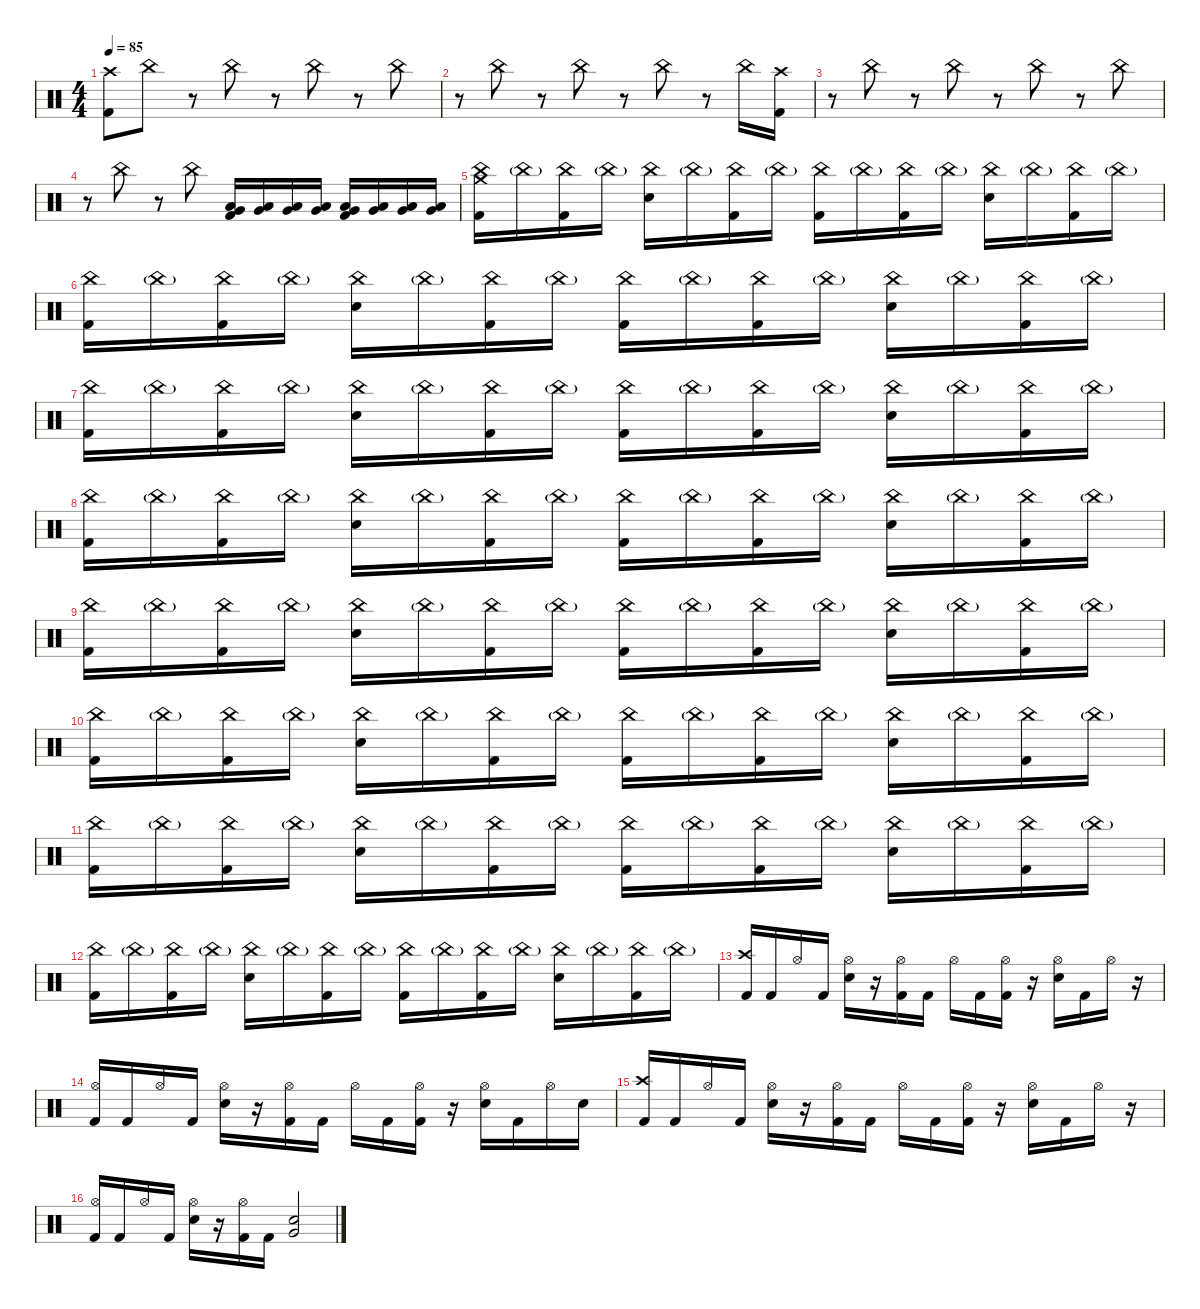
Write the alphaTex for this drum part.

\defaultSystemsLayout 4
\hideDynamics
\bracketExtendMode nobrackets
\singleTrackTrackNamePolicy hidden
\multiTrackTrackNamePolicy hidden
\firstSystemTrackNameMode fullname
\firstSystemTrackNameOrientation horizontal
\otherSystemsTrackNameOrientation horizontal
\track ("Drums" "drm.") {instrument percussion}
\staff {score}
\articulation defaults
\ts (4 4)
\tempo 85
\clef neutral
\ks c
("Crash high (hit)" "Kick (hit) 2").8{dy f beam Down} "China (hit)".8{dy mf beam Down} r.8{beam Down} "China (hit)".8{beam Down} r.8{beam Down} "China (hit)".8{beam Down} r.8{beam Down} "China (hit)".8{beam Down} |
r.8{beam Down} "China (hit)".8{beam Down} r.8{beam Down} "China (hit)".8{beam Down} r.8{beam Down} "China (hit)".8{beam Down} r.8{beam Down} "China (hit)".16{beam Down} ("Crash high (hit)" "Kick (hit) 2").16{dy f beam Down} |
r.8{beam Down} "China (hit)".8{dy mf beam Down} r.8{beam Down} "China (hit)".8{beam Down} r.8{beam Down} "China (hit)".8{beam Down} r.8{beam Down} "China (hit)".8{beam Down} |
r.8{beam Down} "China (hit)".8{beam Down} r.8{beam Down} "China (hit)".8{beam Down} ("Low Tom (hit)" "Very Low Tom (hit)" "Kick (hit) 2").16{beam Up} ("Low Tom (hit)" "Very Low Tom (hit)").16{beam Up} ("Low Tom (hit)" "Very Low Tom (hit)").16{dy f beam Up} ("Low Tom (hit)" "Very Low Tom (hit)").16{beam Up} ("Low Tom (hit)" "Very Low Tom (hit)" "Kick (hit) 2").16{dy ff beam Up} ("Low Tom (hit)" "Very Low Tom (hit)").16{beam Up} ("Low Tom (hit)" "Very Low Tom (hit)").16{dy fff beam Up} ("Low Tom (hit)" "Very Low Tom (hit)").16{beam Up} |
("Crash medium (hit)" "China (hit)" "Kick (hit) 2").16{dy f beam Down} "China (hit)"{g}.16{dy mf beam Down} ("China (hit)" "Kick (hit) 2").16{beam Down} "China (hit)"{g}.16{beam Down} ("China (hit)" "Snare (hit) 2").16{beam Down} "China (hit)"{g}.16{beam Down} ("China (hit)" "Kick (hit) 2").16{beam Down} "China (hit)"{g}.16{beam Down} ("China (hit)" "Kick (hit) 2").16{beam Down} "China (hit)"{g}.16{beam Down} ("China (hit)" "Kick (hit) 2").16{beam Down} "China (hit)"{g}.16{beam Down} ("China (hit)" "Snare (hit) 2").16{beam Down} "China (hit)"{g}.16{beam Down} ("China (hit)" "Kick (hit) 2").16{beam Down} "China (hit)"{g}.16{beam Down} |
("China (hit)" "Kick (hit) 2").16{beam Down} "China (hit)"{g}.16{beam Down} ("China (hit)" "Kick (hit) 2").16{beam Down} "China (hit)"{g}.16{beam Down} ("China (hit)" "Snare (hit) 2").16{beam Down} "China (hit)"{g}.16{beam Down} ("China (hit)" "Kick (hit) 2").16{beam Down} "China (hit)"{g}.16{beam Down} ("China (hit)" "Kick (hit) 2").16{beam Down} "China (hit)"{g}.16{beam Down} ("China (hit)" "Kick (hit) 2").16{beam Down} "China (hit)"{g}.16{beam Down} ("China (hit)" "Snare (hit) 2").16{beam Down} "China (hit)"{g}.16{beam Down} ("China (hit)" "Kick (hit) 2").16{beam Down} "China (hit)"{g}.16{beam Down} |
("China (hit)" "Kick (hit) 2").16{beam Down} "China (hit)"{g}.16{beam Down} ("China (hit)" "Kick (hit) 2").16{beam Down} "China (hit)"{g}.16{beam Down} ("China (hit)" "Snare (hit) 2").16{beam Down} "China (hit)"{g}.16{beam Down} ("China (hit)" "Kick (hit) 2").16{beam Down} "China (hit)"{g}.16{beam Down} ("China (hit)" "Kick (hit) 2").16{beam Down} "China (hit)"{g}.16{beam Down} ("China (hit)" "Kick (hit) 2").16{beam Down} "China (hit)"{g}.16{beam Down} ("China (hit)" "Snare (hit) 2").16{beam Down} "China (hit)"{g}.16{beam Down} ("China (hit)" "Kick (hit) 2").16{beam Down} "China (hit)"{g}.16{beam Down} |
("China (hit)" "Kick (hit) 2").16{beam Down} "China (hit)"{g}.16{beam Down} ("China (hit)" "Kick (hit) 2").16{beam Down} "China (hit)"{g}.16{beam Down} ("China (hit)" "Snare (hit) 2").16{beam Down} "China (hit)"{g}.16{beam Down} ("China (hit)" "Kick (hit) 2").16{beam Down} "China (hit)"{g}.16{beam Down} ("China (hit)" "Kick (hit) 2").16{beam Down} "China (hit)"{g}.16{beam Down} ("China (hit)" "Kick (hit) 2").16{beam Down} "China (hit)"{g}.16{beam Down} ("China (hit)" "Snare (hit) 2").16{beam Down} "China (hit)"{g}.16{beam Down} ("China (hit)" "Kick (hit) 2").16{beam Down} "China (hit)"{g}.16{beam Down} |
("China (hit)" "Kick (hit) 2").16{beam Down} "China (hit)"{g}.16{beam Down} ("China (hit)" "Kick (hit) 2").16{beam Down} "China (hit)"{g}.16{beam Down} ("China (hit)" "Snare (hit) 2").16{beam Down} "China (hit)"{g}.16{beam Down} ("China (hit)" "Kick (hit) 2").16{beam Down} "China (hit)"{g}.16{beam Down} ("China (hit)" "Kick (hit) 2").16{beam Down} "China (hit)"{g}.16{beam Down} ("China (hit)" "Kick (hit) 2").16{beam Down} "China (hit)"{g}.16{beam Down} ("China (hit)" "Snare (hit) 2").16{beam Down} "China (hit)"{g}.16{beam Down} ("China (hit)" "Kick (hit) 2").16{beam Down} "China (hit)"{g}.16{beam Down} |
("China (hit)" "Kick (hit) 2").16{beam Down} "China (hit)"{g}.16{beam Down} ("China (hit)" "Kick (hit) 2").16{beam Down} "China (hit)"{g}.16{beam Down} ("China (hit)" "Snare (hit) 2").16{beam Down} "China (hit)"{g}.16{beam Down} ("China (hit)" "Kick (hit) 2").16{beam Down} "China (hit)"{g}.16{beam Down} ("China (hit)" "Kick (hit) 2").16{beam Down} "China (hit)"{g}.16{beam Down} ("China (hit)" "Kick (hit) 2").16{beam Down} "China (hit)"{g}.16{beam Down} ("China (hit)" "Snare (hit) 2").16{beam Down} "China (hit)"{g}.16{beam Down} ("China (hit)" "Kick (hit) 2").16{beam Down} "China (hit)"{g}.16{beam Down} |
("China (hit)" "Kick (hit) 2").16{beam Down} "China (hit)"{g}.16{beam Down} ("China (hit)" "Kick (hit) 2").16{beam Down} "China (hit)"{g}.16{beam Down} ("China (hit)" "Snare (hit) 2").16{beam Down} "China (hit)"{g}.16{beam Down} ("China (hit)" "Kick (hit) 2").16{beam Down} "China (hit)"{g}.16{beam Down} ("China (hit)" "Kick (hit) 2").16{beam Down} "China (hit)"{g}.16{beam Down} ("China (hit)" "Kick (hit) 2").16{beam Down} "China (hit)"{g}.16{beam Down} ("China (hit)" "Snare (hit) 2").16{beam Down} "China (hit)"{g}.16{beam Down} ("China (hit)" "Kick (hit) 2").16{beam Down} "China (hit)"{g}.16{beam Down} |
("China (hit)" "Kick (hit) 2").16{beam Down} "China (hit)"{g}.16{beam Down} ("China (hit)" "Kick (hit) 2").16{beam Down} "China (hit)"{g}.16{beam Down} ("China (hit)" "Snare (hit) 2").16{beam Down} "China (hit)"{g}.16{beam Down} ("China (hit)" "Kick (hit) 2").16{beam Down} "China (hit)"{g}.16{beam Down} ("China (hit)" "Kick (hit) 2").16{beam Down} "China (hit)"{g}.16{beam Down} ("China (hit)" "Kick (hit) 2").16{beam Down} "China (hit)"{g}.16{beam Down} ("China (hit)" "Snare (hit) 2").16{beam Down} "China (hit)"{g}.16{beam Down} ("China (hit)" "Kick (hit) 2").16{beam Down} "China (hit)"{g}.16{beam Down} |
("Crash high (hit)" "Kick (hit) 2").16{dy f beam Up} "Kick (hit) 2".16{beam Up} "Hi-Hat (open)".16{dy mp beam Up} "Kick (hit) 2".16{dy f beam Up} ("Hi-Hat (open)" "Snare (hit) 2").16{dy mp beam Down} r.16{beam Down} ("Hi-Hat (open)" "Kick (hit) 2").16{beam Down} "Kick (hit) 2".16{dy f beam Down} "Hi-Hat (open)".16{dy mp beam Down} "Kick (hit) 2".16{dy f beam Down} ("Hi-Hat (open)" "Kick (hit) 2").16{dy mp beam Down} r.16{beam Down} ("Hi-Hat (open)" "Snare (hit) 2").16{beam Down} "Kick (hit) 2".16{dy f beam Down} "Hi-Hat (open)".16{dy mp beam Down} r.16{beam Down} |
("Hi-Hat (open)" "Kick (hit) 2").16{beam Up} "Kick (hit) 2".16{dy f beam Up} "Hi-Hat (open)".16{dy mp beam Up} "Kick (hit) 2".16{dy f beam Up} ("Hi-Hat (open)" "Snare (hit) 2").16{dy mp beam Down} r.16{beam Down} ("Hi-Hat (open)" "Kick (hit) 2").16{beam Down} "Kick (hit) 2".16{dy f beam Down} "Hi-Hat (open)".16{dy mp beam Down} "Kick (hit) 2".16{dy f beam Down} ("Hi-Hat (open)" "Kick (hit) 2").16{dy mp beam Down} r.16{beam Down} ("Hi-Hat (open)" "Snare (hit) 2").16{beam Down} "Kick (hit) 2".16{dy f beam Down} "Hi-Hat (open)".16{dy mp beam Down} "Snare (hit) 2".16{dy f beam Down} |
("Crash high (hit)" "Kick (hit) 2").16{beam Up} "Kick (hit) 2".16{beam Up} "Hi-Hat (open)".16{dy mp beam Up} "Kick (hit) 2".16{dy f beam Up} ("Hi-Hat (open)" "Snare (hit) 2").16{dy mp beam Down} r.16{beam Down} ("Hi-Hat (open)" "Kick (hit) 2").16{beam Down} "Kick (hit) 2".16{dy f beam Down} "Hi-Hat (open)".16{dy mp beam Down} "Kick (hit) 2".16{dy f beam Down} ("Hi-Hat (open)" "Kick (hit) 2").16{dy mp beam Down} r.16{beam Down} ("Hi-Hat (open)" "Snare (hit) 2").16{beam Down} "Kick (hit) 2".16{dy f beam Down} "Hi-Hat (open)".16{dy mp beam Down} r.16{beam Down} |
("Hi-Hat (open)" "Kick (hit) 2").16{beam Up} "Kick (hit) 2".16{dy f beam Up} "Hi-Hat (open)".16{dy mp beam Up} "Kick (hit) 2".16{dy f beam Up} ("Hi-Hat (open)" "Snare (hit) 2").16{dy mp beam Down} r.16{beam Down} ("Hi-Hat (open)" "Kick (hit) 2").16{beam Down} "Kick (hit) 2".16{dy f beam Down} ("Snare (hit) 2" "Very Low Tom (hit)").2{beam Up}
